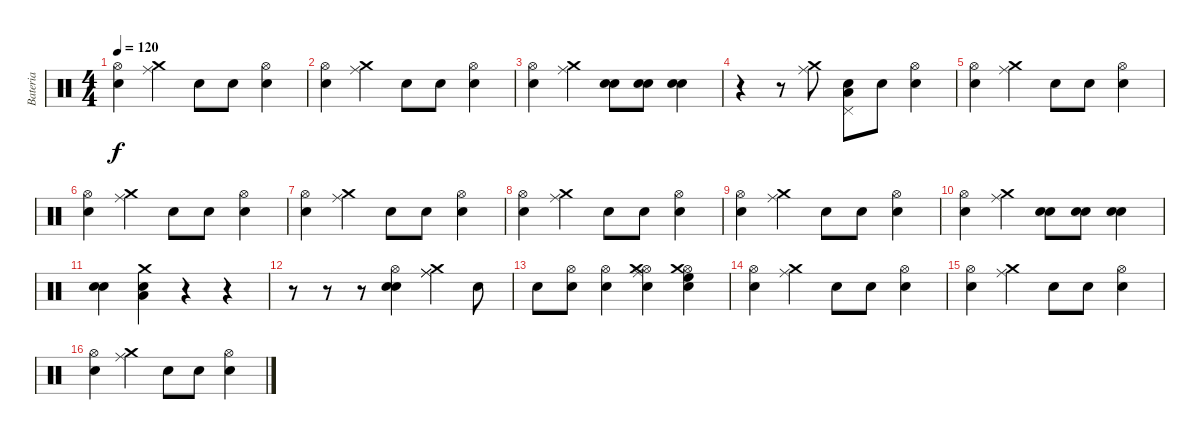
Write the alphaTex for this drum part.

\track ("Bateria" "Bateria") {instrument percussion}
\staff {score}
\articulation defaults
\ts (4 4)
\tempo 120
\clef neutral
\ks c
("Electric Snare (hit)" "Hi-Hat (open)").4{dy f} ("Ride (middle)" "Crash medium (hit)").4 "Electric Snare (hit)".8 "Electric Snare (hit)".8 ("Electric Snare (hit)" "Hi-Hat (open)").4 |
("Electric Snare (hit)" "Hi-Hat (open)").4 ("Ride (middle)" "Crash medium (hit)").4 "Electric Snare (hit)".8 "Electric Snare (hit)".8 ("Electric Snare (hit)" "Hi-Hat (open)").4 |
("Electric Snare (hit)" "Hi-Hat (open)").4 ("Ride (middle)" "Crash medium (hit)").4 ("Electric Snare (hit)" "Electric Snare (hit)").8 ("Electric Snare (hit)" "Electric Snare (hit)").8 ("Electric Snare (hit)" "Electric Snare (hit)").4 |
r.4 r.8 ("Ride (middle)" "Crash medium (hit)").8 ("Pedal Hi-Hat (hit)" "Electric Snare (hit)" "Low Tom (hit)").8 "Electric Snare (hit)".8 ("Electric Snare (hit)" "Hi-Hat (open)").4 |
("Electric Snare (hit)" "Hi-Hat (open)").4 ("Ride (middle)" "Crash medium (hit)").4 "Electric Snare (hit)".8 "Electric Snare (hit)".8 ("Electric Snare (hit)" "Hi-Hat (open)").4 |
("Electric Snare (hit)" "Hi-Hat (open)").4 ("Ride (middle)" "Crash medium (hit)").4 "Electric Snare (hit)".8 "Electric Snare (hit)".8 ("Electric Snare (hit)" "Hi-Hat (open)").4 |
("Electric Snare (hit)" "Hi-Hat (open)").4 ("Ride (middle)" "Crash medium (hit)").4 "Electric Snare (hit)".8 "Electric Snare (hit)".8 ("Electric Snare (hit)" "Hi-Hat (open)").4 |
("Electric Snare (hit)" "Hi-Hat (open)").4 ("Ride (middle)" "Crash medium (hit)").4 "Electric Snare (hit)".8 "Electric Snare (hit)".8 ("Electric Snare (hit)" "Hi-Hat (open)").4 |
("Electric Snare (hit)" "Hi-Hat (open)").4 ("Ride (middle)" "Crash medium (hit)").4 "Electric Snare (hit)".8 "Electric Snare (hit)".8 ("Electric Snare (hit)" "Hi-Hat (open)").4 |
("Electric Snare (hit)" "Hi-Hat (open)").4 ("Ride (middle)" "Crash medium (hit)").4 ("Electric Snare (hit)" "Electric Snare (hit)").8 ("Electric Snare (hit)" "Electric Snare (hit)").8 ("Electric Snare (hit)" "Electric Snare (hit)").4 |
("Electric Snare (hit)" "Electric Snare (hit)").4 ("Low Tom (hit)" "Electric Snare (hit)" "Crash medium (hit)").4 r.4 r.4 |
r.8 r.8 r.8 ("Snare (hit)" "Electric Snare (hit)" "Hi-Hat (open)").4 ("Ride (middle)" "Crash medium (hit)" "Ride (middle)").4 "Electric Snare (hit)".8 |
"Electric Snare (hit)".8 ("Electric Snare (hit)" "Hi-Hat (open)").8 ("Electric Snare (hit)" "Hi-Hat (open)").4 ("Ride (middle)" "Electric Snare (hit)" "Hi-Hat (open)" "Crash medium (hit)").4 ("High Floor Tom (hit)" "Electric Snare (hit)" "Hi-Hat (open)" "Crash medium (hit)").4 |
("Electric Snare (hit)" "Hi-Hat (open)").4 ("Ride (middle)" "Crash medium (hit)").4 "Electric Snare (hit)".8 "Electric Snare (hit)".8 ("Electric Snare (hit)" "Hi-Hat (open)").4 |
("Electric Snare (hit)" "Hi-Hat (open)").4 ("Ride (middle)" "Crash medium (hit)").4 "Electric Snare (hit)".8 "Electric Snare (hit)".8 ("Electric Snare (hit)" "Hi-Hat (open)").4 |
("Electric Snare (hit)" "Hi-Hat (open)").4 ("Ride (middle)" "Crash medium (hit)").4 "Electric Snare (hit)".8 "Electric Snare (hit)".8 ("Electric Snare (hit)" "Hi-Hat (open)").4
